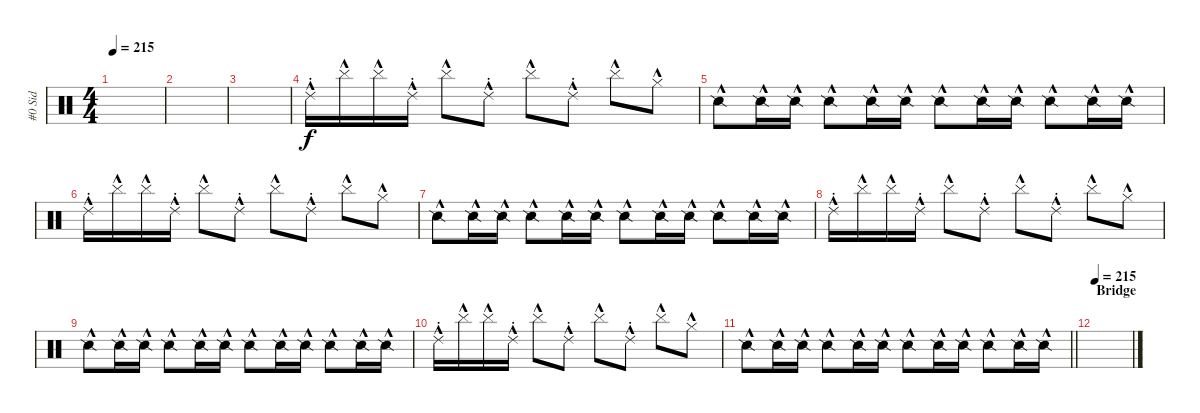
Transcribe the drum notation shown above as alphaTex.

\track ("#0 Sid" "#0 Sid") {instrument percussion}
\staff {score}
\articulation defaults
\ts (4 4)
\tempo 215
\clef neutral
\ks c
|
|
|
"Ride (choke) 2"{hac}.16 "Cymbal (hit)"{hac}.16 "Cymbal (hit)"{hac}.16 "Ride (choke) 2"{hac}.16 "Cymbal (hit)"{hac}.8 "Ride (choke) 2"{hac}.8 "Cymbal (hit)"{hac}.8 "Ride (choke) 2"{hac}.8 "Cymbal (hit)"{hac}.8 "Hi-Hat (closed)"{hac}.8 |
"Snare (side stick) 2"{hac}.8 "Snare (side stick) 2"{hac}.16 "Snare (side stick) 2"{hac}.16 "Snare (side stick) 2"{hac}.8 "Snare (side stick) 2"{hac}.16 "Snare (side stick) 2"{hac}.16 "Snare (side stick) 2"{hac}.8 "Snare (side stick) 2"{hac}.16 "Snare (side stick) 2"{hac}.16 "Snare (side stick) 2"{hac}.8 "Snare (side stick) 2"{hac}.16 "Snare (side stick) 2"{hac}.16 |
"Ride (choke) 2"{hac}.16 "Cymbal (hit)"{hac}.16 "Cymbal (hit)"{hac}.16 "Ride (choke) 2"{hac}.16 "Cymbal (hit)"{hac}.8 "Ride (choke) 2"{hac}.8 "Cymbal (hit)"{hac}.8 "Ride (choke) 2"{hac}.8 "Cymbal (hit)"{hac}.8 "Hi-Hat (closed)"{hac}.8 |
"Snare (side stick) 2"{hac}.8 "Snare (side stick) 2"{hac}.16 "Snare (side stick) 2"{hac}.16 "Snare (side stick) 2"{hac}.8 "Snare (side stick) 2"{hac}.16 "Snare (side stick) 2"{hac}.16 "Snare (side stick) 2"{hac}.8 "Snare (side stick) 2"{hac}.16 "Snare (side stick) 2"{hac}.16 "Snare (side stick) 2"{hac}.8 "Snare (side stick) 2"{hac}.16 "Snare (side stick) 2"{hac}.16 |
"Ride (choke) 2"{hac}.16 "Cymbal (hit)"{hac}.16 "Cymbal (hit)"{hac}.16 "Ride (choke) 2"{hac}.16 "Cymbal (hit)"{hac}.8 "Ride (choke) 2"{hac}.8 "Cymbal (hit)"{hac}.8 "Ride (choke) 2"{hac}.8 "Cymbal (hit)"{hac}.8 "Hi-Hat (closed)"{hac}.8 |
"Snare (side stick) 2"{hac}.8 "Snare (side stick) 2"{hac}.16 "Snare (side stick) 2"{hac}.16 "Snare (side stick) 2"{hac}.8 "Snare (side stick) 2"{hac}.16 "Snare (side stick) 2"{hac}.16 "Snare (side stick) 2"{hac}.8 "Snare (side stick) 2"{hac}.16 "Snare (side stick) 2"{hac}.16 "Snare (side stick) 2"{hac}.8 "Snare (side stick) 2"{hac}.16 "Snare (side stick) 2"{hac}.16 |
"Ride (choke) 2"{hac}.16 "Cymbal (hit)"{hac}.16 "Cymbal (hit)"{hac}.16 "Ride (choke) 2"{hac}.16 "Cymbal (hit)"{hac}.8 "Ride (choke) 2"{hac}.8 "Cymbal (hit)"{hac}.8 "Ride (choke) 2"{hac}.8 "Cymbal (hit)"{hac}.8 "Hi-Hat (closed)"{hac}.8 |
\barLineRight lightlight "Snare (side stick) 2"{hac}.8 "Snare (side stick) 2"{hac}.16 "Snare (side stick) 2"{hac}.16 "Snare (side stick) 2"{hac}.8 "Snare (side stick) 2"{hac}.16 "Snare (side stick) 2"{hac}.16 "Snare (side stick) 2"{hac}.8 "Snare (side stick) 2"{hac}.16 "Snare (side stick) 2"{hac}.16 "Snare (side stick) 2"{hac}.8 "Snare (side stick) 2"{hac}.16 "Snare (side stick) 2"{hac}.16
|
\section ("" "Bridge")
\tempo 215
